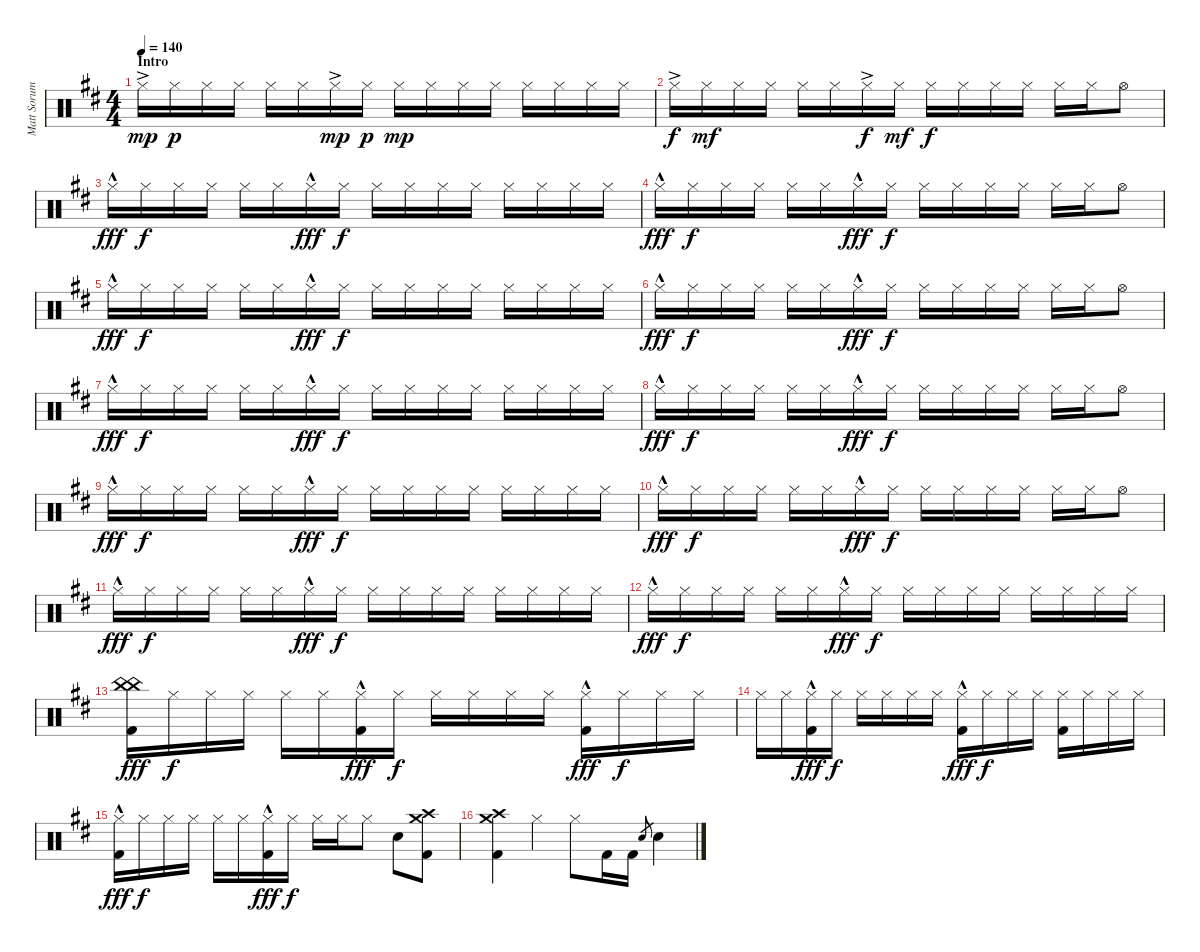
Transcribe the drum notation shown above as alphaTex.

\track ("Matt Sorum - Drums" "Matt Sorum") {instrument percussion}
\staff {score}
\articulation defaults
\ts (4 4)
\section ("" "Intro")
\tempo 140
\clef neutral
\ks d "Hi-Hat (closed)"{ac}.16{dy mp} "Hi-Hat (closed)".16{dy p} "Hi-Hat (closed)".16 "Hi-Hat (closed)".16 "Hi-Hat (closed)".16 "Hi-Hat (closed)".16 "Hi-Hat (closed)"{ac}.16{dy mp} "Hi-Hat (closed)".16{dy p} "Hi-Hat (closed)".16{dy mp} "Hi-Hat (closed)".16 "Hi-Hat (closed)".16 "Hi-Hat (closed)".16 "Hi-Hat (closed)".16 "Hi-Hat (closed)".16 "Hi-Hat (closed)".16 "Hi-Hat (closed)".16
|
"Hi-Hat (closed)"{ac}.16{dy f} "Hi-Hat (closed)".16{dy mf} "Hi-Hat (closed)".16 "Hi-Hat (closed)".16 "Hi-Hat (closed)".16 "Hi-Hat (closed)".16 "Hi-Hat (closed)"{ac}.16{dy f} "Hi-Hat (closed)".16{dy mf} "Hi-Hat (closed)".16{dy f} "Hi-Hat (closed)".16 "Hi-Hat (closed)".16 "Hi-Hat (closed)".16 "Hi-Hat (closed)".16 "Hi-Hat (closed)".16 "Hi-Hat (open)".8 |
"Hi-Hat (closed)"{hac}.16{dy fff} "Hi-Hat (closed)".16{dy f} "Hi-Hat (closed)".16 "Hi-Hat (closed)".16 "Hi-Hat (closed)".16 "Hi-Hat (closed)".16 "Hi-Hat (closed)"{hac}.16{dy fff} "Hi-Hat (closed)".16{dy f} "Hi-Hat (closed)".16 "Hi-Hat (closed)".16 "Hi-Hat (closed)".16 "Hi-Hat (closed)".16 "Hi-Hat (closed)".16 "Hi-Hat (closed)".16 "Hi-Hat (closed)".16 "Hi-Hat (closed)".16 |
"Hi-Hat (closed)"{hac}.16{dy fff} "Hi-Hat (closed)".16{dy f} "Hi-Hat (closed)".16 "Hi-Hat (closed)".16 "Hi-Hat (closed)".16 "Hi-Hat (closed)".16 "Hi-Hat (closed)"{hac}.16{dy fff} "Hi-Hat (closed)".16{dy f} "Hi-Hat (closed)".16 "Hi-Hat (closed)".16 "Hi-Hat (closed)".16 "Hi-Hat (closed)".16 "Hi-Hat (closed)".16 "Hi-Hat (closed)".16 "Hi-Hat (open)".8 |
"Hi-Hat (closed)"{hac}.16{dy fff} "Hi-Hat (closed)".16{dy f} "Hi-Hat (closed)".16 "Hi-Hat (closed)".16 "Hi-Hat (closed)".16 "Hi-Hat (closed)".16 "Hi-Hat (closed)"{hac}.16{dy fff} "Hi-Hat (closed)".16{dy f} "Hi-Hat (closed)".16 "Hi-Hat (closed)".16 "Hi-Hat (closed)".16 "Hi-Hat (closed)".16 "Hi-Hat (closed)".16 "Hi-Hat (closed)".16 "Hi-Hat (closed)".16 "Hi-Hat (closed)".16 |
"Hi-Hat (closed)"{hac}.16{dy fff} "Hi-Hat (closed)".16{dy f} "Hi-Hat (closed)".16 "Hi-Hat (closed)".16 "Hi-Hat (closed)".16 "Hi-Hat (closed)".16 "Hi-Hat (closed)"{hac}.16{dy fff} "Hi-Hat (closed)".16{dy f} "Hi-Hat (closed)".16 "Hi-Hat (closed)".16 "Hi-Hat (closed)".16 "Hi-Hat (closed)".16 "Hi-Hat (closed)".16 "Hi-Hat (closed)".16 "Hi-Hat (open)".8 |
"Hi-Hat (closed)"{hac}.16{dy fff} "Hi-Hat (closed)".16{dy f} "Hi-Hat (closed)".16 "Hi-Hat (closed)".16 "Hi-Hat (closed)".16 "Hi-Hat (closed)".16 "Hi-Hat (closed)"{hac}.16{dy fff} "Hi-Hat (closed)".16{dy f} "Hi-Hat (closed)".16 "Hi-Hat (closed)".16 "Hi-Hat (closed)".16 "Hi-Hat (closed)".16 "Hi-Hat (closed)".16 "Hi-Hat (closed)".16 "Hi-Hat (closed)".16 "Hi-Hat (closed)".16 |
"Hi-Hat (closed)"{hac}.16{dy fff} "Hi-Hat (closed)".16{dy f} "Hi-Hat (closed)".16 "Hi-Hat (closed)".16 "Hi-Hat (closed)".16 "Hi-Hat (closed)".16 "Hi-Hat (closed)"{hac}.16{dy fff} "Hi-Hat (closed)".16{dy f} "Hi-Hat (closed)".16 "Hi-Hat (closed)".16 "Hi-Hat (closed)".16 "Hi-Hat (closed)".16 "Hi-Hat (closed)".16 "Hi-Hat (closed)".16 "Hi-Hat (open)".8 |
"Hi-Hat (closed)"{hac}.16{dy fff} "Hi-Hat (closed)".16{dy f} "Hi-Hat (closed)".16 "Hi-Hat (closed)".16 "Hi-Hat (closed)".16 "Hi-Hat (closed)".16 "Hi-Hat (closed)"{hac}.16{dy fff} "Hi-Hat (closed)".16{dy f} "Hi-Hat (closed)".16 "Hi-Hat (closed)".16 "Hi-Hat (closed)".16 "Hi-Hat (closed)".16 "Hi-Hat (closed)".16 "Hi-Hat (closed)".16 "Hi-Hat (closed)".16 "Hi-Hat (closed)".16 |
"Hi-Hat (closed)"{hac}.16{dy fff} "Hi-Hat (closed)".16{dy f} "Hi-Hat (closed)".16 "Hi-Hat (closed)".16 "Hi-Hat (closed)".16 "Hi-Hat (closed)".16 "Hi-Hat (closed)"{hac}.16{dy fff} "Hi-Hat (closed)".16{dy f} "Hi-Hat (closed)".16 "Hi-Hat (closed)".16 "Hi-Hat (closed)".16 "Hi-Hat (closed)".16 "Hi-Hat (closed)".16 "Hi-Hat (closed)".16 "Hi-Hat (open)".8 |
"Hi-Hat (closed)"{hac}.16{dy fff} "Hi-Hat (closed)".16{dy f} "Hi-Hat (closed)".16 "Hi-Hat (closed)".16 "Hi-Hat (closed)".16 "Hi-Hat (closed)".16 "Hi-Hat (closed)"{hac}.16{dy fff} "Hi-Hat (closed)".16{dy f} "Hi-Hat (closed)".16 "Hi-Hat (closed)".16 "Hi-Hat (closed)".16 "Hi-Hat (closed)".16 "Hi-Hat (closed)".16 "Hi-Hat (closed)".16 "Hi-Hat (closed)".16 "Hi-Hat (closed)".16 |
"Hi-Hat (closed)"{hac}.16{dy fff} "Hi-Hat (closed)".16{dy f} "Hi-Hat (closed)".16 "Hi-Hat (closed)".16 "Hi-Hat (closed)".16 "Hi-Hat (closed)".16 "Hi-Hat (closed)"{hac}.16{dy fff} "Hi-Hat (closed)".16{dy f} "Hi-Hat (closed)".16 "Hi-Hat (closed)".16 "Hi-Hat (closed)".16 "Hi-Hat (closed)".16 "Hi-Hat (closed)".16 "Hi-Hat (closed)".16 "Hi-Hat (closed)".16 "Hi-Hat (closed)".16 |
("China (hit)" "China (hit)" "Kick (hit) 2").16{dy fff} "Hi-Hat (closed)".16{dy f} "Hi-Hat (closed)".16 "Hi-Hat (closed)".16 "Hi-Hat (closed)".16 "Hi-Hat (closed)".16 ("Hi-Hat (closed)"{hac} "Kick (hit) 2").16{dy fff} "Hi-Hat (closed)".16{dy f} "Hi-Hat (closed)".16 "Hi-Hat (closed)".16 "Hi-Hat (closed)".16 "Hi-Hat (closed)".16 ("Hi-Hat (closed)"{hac} "Kick (hit) 2").16{dy fff} "Hi-Hat (closed)".16{dy f} "Hi-Hat (closed)".16 "Hi-Hat (closed)".16 |
"Hi-Hat (closed)".16 "Hi-Hat (closed)".16 ("Hi-Hat (closed)"{hac} "Kick (hit) 2").16{dy fff} "Hi-Hat (closed)".16{dy f} "Hi-Hat (closed)".16 "Hi-Hat (closed)".16 "Hi-Hat (closed)".16 "Hi-Hat (closed)".16 ("Hi-Hat (closed)"{hac} "Kick (hit) 2").16{dy fff} "Hi-Hat (closed)".16{dy f} "Hi-Hat (closed)".16 "Hi-Hat (closed)".16 ("Hi-Hat (closed)" "Kick (hit) 2").16 "Hi-Hat (closed)".16 "Hi-Hat (closed)".16 "Hi-Hat (closed)".16 |
("Hi-Hat (closed)"{hac} "Kick (hit) 2").16{dy fff} "Hi-Hat (closed)".16{dy f} "Hi-Hat (closed)".16 "Hi-Hat (closed)".16 "Hi-Hat (closed)".16 "Hi-Hat (closed)".16 ("Hi-Hat (closed)"{hac} "Kick (hit) 2").16{dy fff} "Hi-Hat (closed)".16{dy f} "Hi-Hat (closed)".16 "Hi-Hat (closed)".16 "Hi-Hat (closed)".8 "Snare (hit) 2".8 ("Crash medium (hit)" "Crash high (hit)" "Kick (hit) 2").8 |
("Crash medium (hit)" "Crash high (hit)" "Kick (hit) 2").4 "Hi-Hat (closed)".4 "Hi-Hat (closed)".8 "Kick (hit) 2".16 "Kick (hit) 2".16 "Snare (hit) 2".8{gr} "Snare (hit) 2".4
